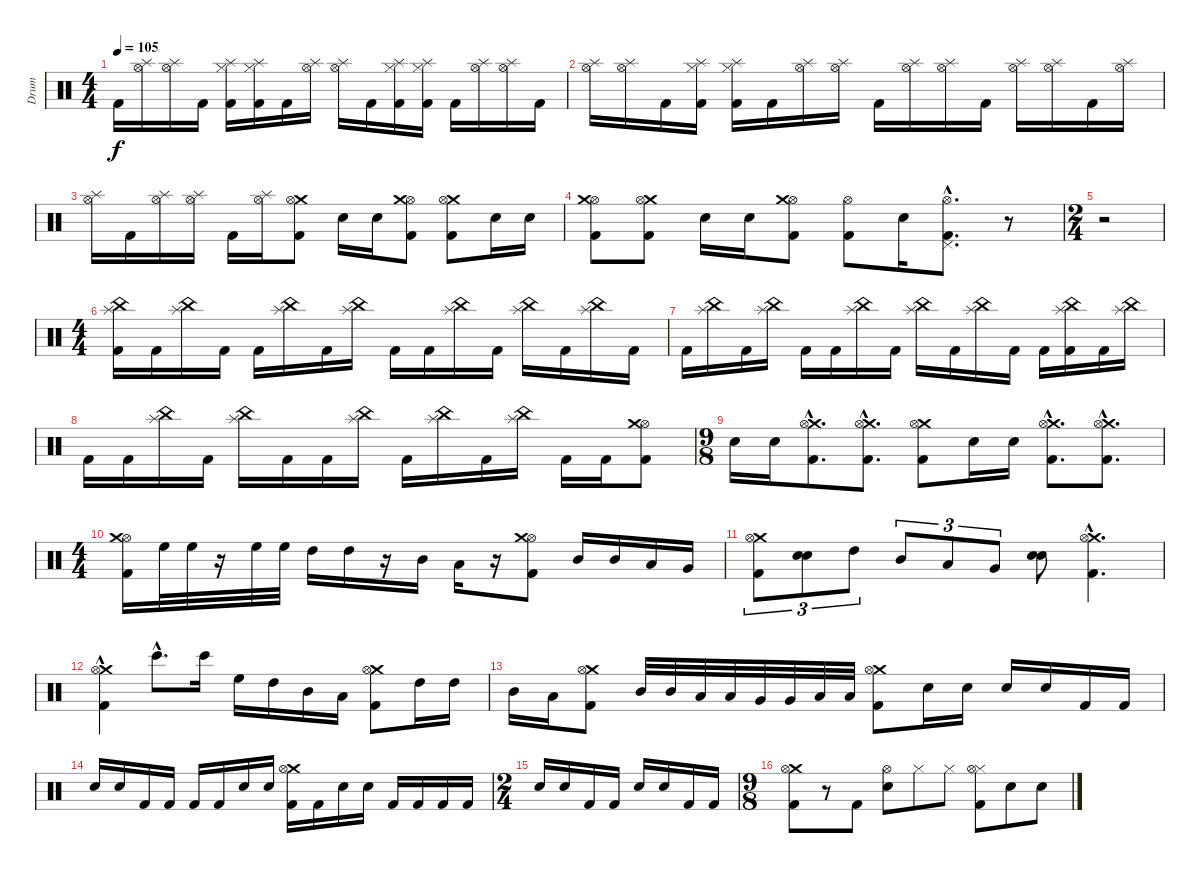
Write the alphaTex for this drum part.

\track ("Drum" "Drum") {instrument percussion}
\staff {score}
\articulation defaults
\ts (4 4)
\tempo 105
\clef neutral
\ks c "Kick (hit) 2".16{dy f}
("Hi-Hat (open)" "Splash (hit)").16 ("Hi-Hat (open)" "Splash (hit)").16 "Kick (hit) 2".16 ("Kick (hit) 2" "Hi-Hat (closed)" "Splash (hit)").16 ("Kick (hit) 2" "Hi-Hat (closed)" "Splash (hit)").16 "Kick (hit) 2".16 ("Hi-Hat (open)" "Splash (hit)").16 ("Hi-Hat (open)" "Splash (hit)").16 "Kick (hit) 2".16 ("Kick (hit) 2" "Hi-Hat (closed)" "Splash (hit)").16 ("Kick (hit) 2" "Hi-Hat (closed)" "Splash (hit)").16 "Kick (hit) 2".16 ("Hi-Hat (open)" "Splash (hit)").16 ("Hi-Hat (open)" "Splash (hit)").16 "Kick (hit) 2".16 |
("Hi-Hat (open)" "Splash (hit)").16 ("Hi-Hat (open)" "Splash (hit)").16 "Kick (hit) 2".16 ("Kick (hit) 2" "Hi-Hat (closed)" "Splash (hit)").16 ("Kick (hit) 2" "Hi-Hat (closed)" "Splash (hit)").16 "Kick (hit) 2".16 ("Hi-Hat (open)" "Splash (hit)").16 ("Hi-Hat (open)" "Splash (hit)").16 "Kick (hit) 2".16 ("Hi-Hat (open)" "Splash (hit)").16 ("Hi-Hat (open)" "Splash (hit)").16 "Kick (hit) 2".16 ("Hi-Hat (open)" "Splash (hit)").16 ("Hi-Hat (open)" "Splash (hit)").16 "Kick (hit) 2".16 ("Hi-Hat (open)" "Splash (hit)").16 |
("Hi-Hat (open)" "Splash (hit)").16 "Kick (hit) 2".16 ("Hi-Hat (open)" "Splash (hit)").16 ("Hi-Hat (open)" "Splash (hit)").16 "Kick (hit) 2".16 ("Hi-Hat (open)" "Splash (hit)").16 ("Crash medium (hit)" "Hi-Hat (open)" "Kick (hit) 2").8 "Electric Snare (hit)".16 "Electric Snare (hit)".16 ("Kick (hit) 2" "Hi-Hat (open)" "Crash medium (hit)").8 ("Crash medium (hit)" "Hi-Hat (open)" "Kick (hit) 2").8 "Electric Snare (hit)".16 "Electric Snare (hit)".16 |
("Kick (hit) 2" "Hi-Hat (open)" "Crash medium (hit)").8 ("Crash medium (hit)" "Hi-Hat (open)" "Kick (hit) 2").8 "Electric Snare (hit)".16 "Electric Snare (hit)".16 ("Kick (hit) 2" "Hi-Hat (open)" "Crash medium (hit)").8 ("Hi-Hat (open)" "Kick (hit) 2").8 "Electric Snare (hit)".16 ("Hi-Hat (open)"{hac} "Pedal Hi-Hat (hit)"{hac} "Kick (hit) 2"{hac}).8{d} r.8 |
\ts (2 4)
r.2 |
\ts (4 4)
("Splash (hit)" "China (hit)" "Kick (hit) 2").16 "Kick (hit) 2".16 ("Splash (hit)" "China (hit)").16 "Kick (hit) 2".16 "Kick (hit) 2".16 ("Splash (hit)" "China (hit)").16 "Kick (hit) 2".16 ("China (hit)" "Splash (hit)").16 "Kick (hit) 2".16 "Kick (hit) 2".16 ("China (hit)" "Splash (hit)").16 "Kick (hit) 2".16 ("China (hit)" "Splash (hit)").16 "Kick (hit) 2".16 ("China (hit)" "Splash (hit)").16 "Kick (hit) 2".16 |
"Kick (hit) 2".16 ("Splash (hit)" "China (hit)").16 "Kick (hit) 2".16 ("China (hit)" "Splash (hit)").16 "Kick (hit) 2".16 "Kick (hit) 2".16 ("China (hit)" "Splash (hit)").16 "Kick (hit) 2".16 ("China (hit)" "Splash (hit)").16 "Kick (hit) 2".16 ("China (hit)" "Splash (hit)").16 "Kick (hit) 2".16 "Kick (hit) 2".16 ("Splash (hit)" "China (hit)" "Kick (hit) 2").16 "Kick (hit) 2".16 ("Splash (hit)" "China (hit)").16 |
"Kick (hit) 2".16 "Kick (hit) 2".16 ("Splash (hit)" "China (hit)").16 "Kick (hit) 2".16 ("China (hit)" "Splash (hit)").16 "Kick (hit) 2".16 "Kick (hit) 2".16 ("China (hit)" "Splash (hit)").16 "Kick (hit) 2".16 ("China (hit)" "Splash (hit)").16 "Kick (hit) 2".16 ("China (hit)" "Splash (hit)").16 "Kick (hit) 2".16 "Kick (hit) 2".16 ("Hi-Hat (open)" "Crash medium (hit)" "Kick (hit) 2").8 |
\ts (9 8)
"Electric Snare (hit)".16 "Electric Snare (hit)".16 ("Crash medium (hit)"{hac} "Hi-Hat (open)"{hac} "Kick (hit) 2"{hac}).8{d} ("Crash medium (hit)"{hac} "Hi-Hat (open)"{hac} "Kick (hit) 2"{hac}).8{d} ("Crash medium (hit)" "Hi-Hat (open)" "Kick (hit) 2").8 "Electric Snare (hit)".16 "Electric Snare (hit)".16 ("Crash medium (hit)"{hac} "Hi-Hat (open)"{hac} "Kick (hit) 2"{hac}).8{d} ("Crash medium (hit)"{hac} "Hi-Hat (open)"{hac} "Kick (hit) 2"{hac}).8{d} |
\ts (4 4)
("Hi-Hat (open)" "Crash medium (hit)" "Kick (hit) 2").16 "High Floor Tom (hit)".32 "High Floor Tom (hit)".32 r.16 "High Floor Tom (hit)".32 "High Floor Tom (hit)".32 "High Tom (hit)".16 "High Tom (hit)".16 r.16 "Mid Tom (hit)".16 "Low Tom (hit)".16 r.16 ("Hi-Hat (open)" "Crash medium (hit)" "Kick (hit) 2").8 "Mid Tom (hit)".16 "Mid Tom (hit)".16 "Low Tom (hit)".16 "Very Low Tom (hit)".16 |
("Crash medium (hit)" "Hi-Hat (open)" "Kick (hit) 2").8{tu (3 2)} ("Snare (hit) 2" "Electric Snare (hit)").8{tu (3 2)} "High Tom (hit)".8{tu (3 2)} "Mid Tom (hit)".8{tu (3 2)} "Low Tom (hit)".8{tu (3 2)} "Very Low Tom (hit)".8{tu (3 2)} ("Snare (hit) 2" "Electric Snare (hit)").8 ("Crash medium (hit)"{hac} "Hi-Hat (open)"{hac} "Kick (hit) 2"{hac}).4{d} |
("Crash medium (hit)"{hac} "Hi-Hat (open)"{hac} "Kick (hit) 2"{hac}).4 "Bongo High (hit)"{hac}.8{d} "Bongo High (hit)".16 "High Floor Tom (hit)".16 "High Tom (hit)".16 "Mid Tom (hit)".16 "Low Tom (hit)".16 ("Crash medium (hit)" "Hi-Hat (open)" "Kick (hit) 2").8 "High Tom (hit)".16 "High Tom (hit)".16 |
"Mid Tom (hit)".16 "Low Tom (hit)".16 ("Crash medium (hit)" "Hi-Hat (open)" "Kick (hit) 2").8 "Mid Tom (hit)".32 "Mid Tom (hit)".32 "Low Tom (hit)".32 "Low Tom (hit)".32 "Very Low Tom (hit)".32 "Very Low Tom (hit)".32 "Low Floor Tom (hit)".32 "Low Floor Tom (hit)".32 ("Crash medium (hit)" "Hi-Hat (open)" "Kick (hit) 2").8 "Electric Snare (hit)".16 "Electric Snare (hit)".16 "Electric Snare (hit)".16 "Electric Snare (hit)".16 "Kick (hit) 2".16 "Kick (hit) 2".16 |
"Electric Snare (hit)".16 "Electric Snare (hit)".16 "Kick (hit) 2".16 "Kick (hit) 2".16 "Kick (hit) 2".16 "Kick (hit) 2".16 "Electric Snare (hit)".16 "Electric Snare (hit)".16 ("Kick (hit) 2" "Crash medium (hit)" "Hi-Hat (open)").16 "Kick (hit) 2".16 "Electric Snare (hit)".16 "Electric Snare (hit)".16 "Kick (hit) 2".16 "Kick (hit) 2".16 "Kick (hit) 2".16 "Kick (hit) 2".16 |
\ts (2 4)
"Electric Snare (hit)".16 "Electric Snare (hit)".16 "Kick (hit) 2".16 "Kick (hit) 2".16 "Electric Snare (hit)".16 "Electric Snare (hit)".16 "Kick (hit) 2".16 "Kick (hit) 2".16 |
\ts (9 8)
("Crash medium (hit)" "Hi-Hat (open)" "Kick (hit) 2").8 r.8 "Kick (hit) 2".8 ("Hi-Hat (open)" "Electric Snare (hit)").8 "Hi-Hat (closed)".8 "Hi-Hat (closed)".8 ("Hi-Hat (closed)" "Hi-Hat (open)" "Kick (hit) 2").8 "Electric Snare (hit)".8 "Electric Snare (hit)".8
